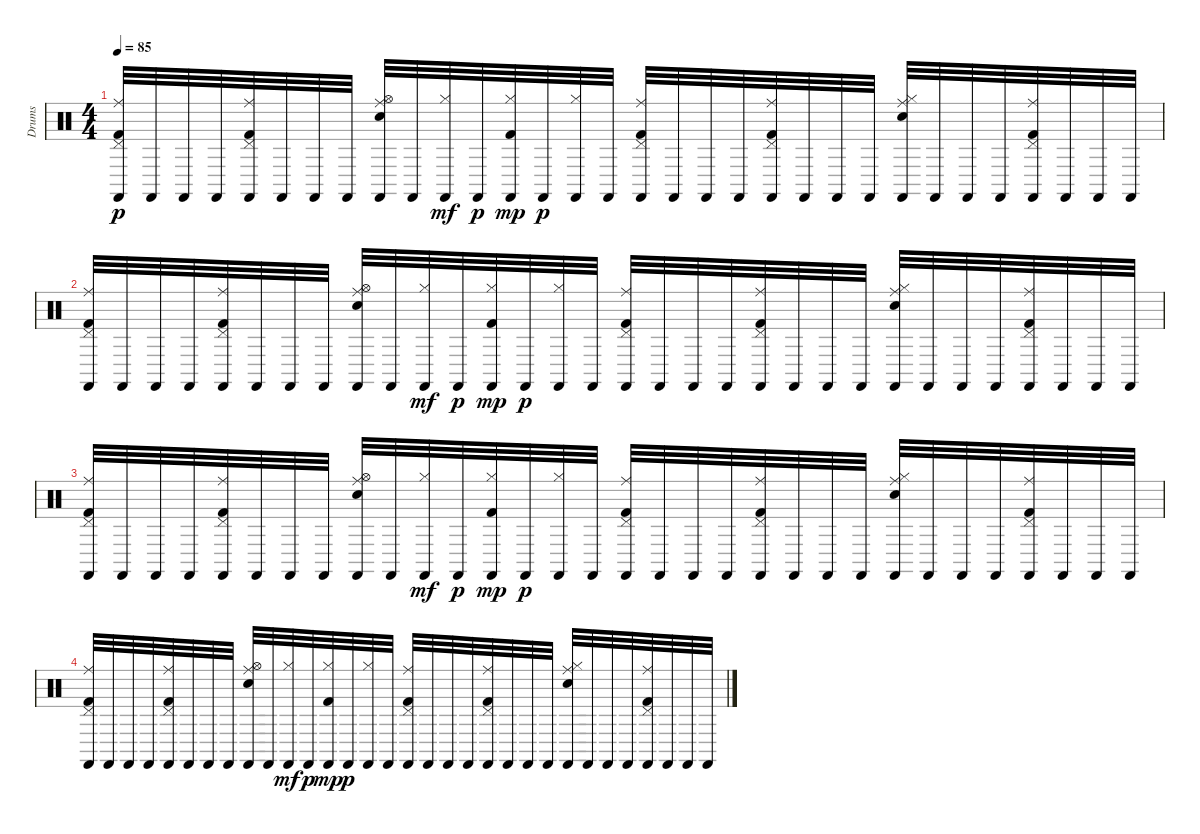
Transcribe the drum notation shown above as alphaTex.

\track ("Drums" "Drums") {instrument percussion}
\staff {score}
\articulation defaults
\ts (4 4)
\tempo 85
\clef neutral
\ks c
("Ride (middle)" "Castanets (hit)" "Pedal Hi-Hat (hit)" "Kick (hit) 2").32{dy p} "Castanets (hit)".32 "Castanets (hit)".32 "Castanets (hit)".32 ("Ride (middle)" "Castanets (hit)" "Pedal Hi-Hat (hit)" "Kick (hit) 2").32 "Castanets (hit)".32 "Castanets (hit)".32 "Castanets (hit)".32 ("Ride (middle)" "Castanets (hit)" "Hi-Hat (open)" "Electric Snare (hit)").32 "Castanets (hit)".32 ("Castanets (hit)" "Hi-Hat (closed)").32{dy mf} "Castanets (hit)".32{dy p} ("Castanets (hit)" "Hi-Hat (closed)" "Kick (hit) 2").32{dy mp} "Castanets (hit)".32{dy p} ("Castanets (hit)" "Hi-Hat (closed)").32 "Castanets (hit)".32 ("Ride (middle)" "Castanets (hit)" "Pedal Hi-Hat (hit)" "Kick (hit) 2").32 "Castanets (hit)".32 "Castanets (hit)".32 "Castanets (hit)".32 ("Ride (middle)" "Castanets (hit)" "Pedal Hi-Hat (hit)" "Kick (hit) 2").32 "Castanets (hit)".32 "Castanets (hit)".32 "Castanets (hit)".32 ("Ride (middle)" "Castanets (hit)" "Hi-Hat (closed)" "Electric Snare (hit)").32 "Castanets (hit)".32 "Castanets (hit)".32 "Castanets (hit)".32 ("Ride (middle)" "Castanets (hit)" "Pedal Hi-Hat (hit)" "Kick (hit) 2").32 "Castanets (hit)".32 "Castanets (hit)".32 "Castanets (hit)".32 |
("Ride (middle)" "Castanets (hit)" "Pedal Hi-Hat (hit)" "Kick (hit) 2").32 "Castanets (hit)".32 "Castanets (hit)".32 "Castanets (hit)".32 ("Ride (middle)" "Castanets (hit)" "Pedal Hi-Hat (hit)" "Kick (hit) 2").32 "Castanets (hit)".32 "Castanets (hit)".32 "Castanets (hit)".32 ("Ride (middle)" "Castanets (hit)" "Hi-Hat (open)" "Electric Snare (hit)").32 "Castanets (hit)".32 ("Castanets (hit)" "Hi-Hat (closed)").32{dy mf} "Castanets (hit)".32{dy p} ("Castanets (hit)" "Hi-Hat (closed)" "Kick (hit) 2").32{dy mp} "Castanets (hit)".32{dy p} ("Castanets (hit)" "Hi-Hat (closed)").32 "Castanets (hit)".32 ("Ride (middle)" "Castanets (hit)" "Pedal Hi-Hat (hit)" "Kick (hit) 2").32 "Castanets (hit)".32 "Castanets (hit)".32 "Castanets (hit)".32 ("Ride (middle)" "Castanets (hit)" "Pedal Hi-Hat (hit)" "Kick (hit) 2").32 "Castanets (hit)".32 "Castanets (hit)".32 "Castanets (hit)".32 ("Ride (middle)" "Castanets (hit)" "Hi-Hat (closed)" "Electric Snare (hit)").32 "Castanets (hit)".32 "Castanets (hit)".32 "Castanets (hit)".32 ("Ride (middle)" "Castanets (hit)" "Pedal Hi-Hat (hit)" "Kick (hit) 2").32 "Castanets (hit)".32 "Castanets (hit)".32 "Castanets (hit)".32 |
("Ride (middle)" "Castanets (hit)" "Pedal Hi-Hat (hit)" "Kick (hit) 2").32 "Castanets (hit)".32 "Castanets (hit)".32 "Castanets (hit)".32 ("Ride (middle)" "Castanets (hit)" "Pedal Hi-Hat (hit)" "Kick (hit) 2").32 "Castanets (hit)".32 "Castanets (hit)".32 "Castanets (hit)".32 ("Ride (middle)" "Castanets (hit)" "Hi-Hat (open)" "Electric Snare (hit)").32 "Castanets (hit)".32 ("Castanets (hit)" "Hi-Hat (closed)").32{dy mf} "Castanets (hit)".32{dy p} ("Castanets (hit)" "Hi-Hat (closed)" "Kick (hit) 2").32{dy mp} "Castanets (hit)".32{dy p} ("Castanets (hit)" "Hi-Hat (closed)").32 "Castanets (hit)".32 ("Ride (middle)" "Castanets (hit)" "Pedal Hi-Hat (hit)" "Kick (hit) 2").32 "Castanets (hit)".32 "Castanets (hit)".32 "Castanets (hit)".32 ("Ride (middle)" "Castanets (hit)" "Pedal Hi-Hat (hit)" "Kick (hit) 2").32 "Castanets (hit)".32 "Castanets (hit)".32 "Castanets (hit)".32 ("Ride (middle)" "Castanets (hit)" "Hi-Hat (closed)" "Electric Snare (hit)").32 "Castanets (hit)".32 "Castanets (hit)".32 "Castanets (hit)".32 ("Ride (middle)" "Castanets (hit)" "Pedal Hi-Hat (hit)" "Kick (hit) 2").32 "Castanets (hit)".32 "Castanets (hit)".32 "Castanets (hit)".32 |
("Ride (middle)" "Castanets (hit)" "Pedal Hi-Hat (hit)" "Kick (hit) 2").32 "Castanets (hit)".32 "Castanets (hit)".32 "Castanets (hit)".32 ("Ride (middle)" "Castanets (hit)" "Pedal Hi-Hat (hit)" "Kick (hit) 2").32 "Castanets (hit)".32 "Castanets (hit)".32 "Castanets (hit)".32 ("Ride (middle)" "Castanets (hit)" "Hi-Hat (open)" "Electric Snare (hit)").32 "Castanets (hit)".32 ("Castanets (hit)" "Hi-Hat (closed)").32{dy mf} "Castanets (hit)".32{dy p} ("Castanets (hit)" "Hi-Hat (closed)" "Kick (hit) 2").32{dy mp} "Castanets (hit)".32{dy p} ("Castanets (hit)" "Hi-Hat (closed)").32 "Castanets (hit)".32 ("Ride (middle)" "Castanets (hit)" "Pedal Hi-Hat (hit)" "Kick (hit) 2").32 "Castanets (hit)".32 "Castanets (hit)".32 "Castanets (hit)".32 ("Ride (middle)" "Castanets (hit)" "Pedal Hi-Hat (hit)" "Kick (hit) 2").32 "Castanets (hit)".32 "Castanets (hit)".32 "Castanets (hit)".32 ("Ride (middle)" "Castanets (hit)" "Hi-Hat (closed)" "Electric Snare (hit)").32 "Castanets (hit)".32 "Castanets (hit)".32 "Castanets (hit)".32 ("Ride (middle)" "Castanets (hit)" "Pedal Hi-Hat (hit)" "Kick (hit) 2").32 "Castanets (hit)".32 "Castanets (hit)".32 "Castanets (hit)".32
